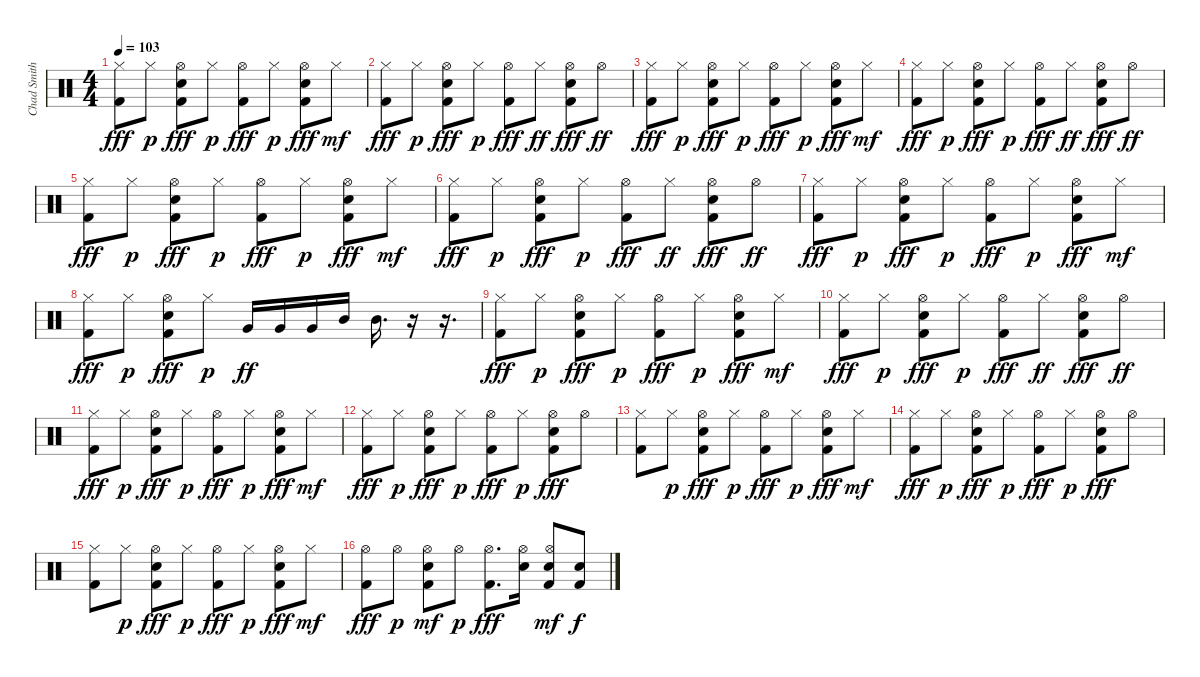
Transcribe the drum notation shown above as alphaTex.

\track ("Chad Smith - Drums" "Chad Smith") {instrument percussion}
\staff {score}
\articulation defaults
\ts (4 4)
\tempo 103
\clef neutral
\ks c
("Hi-Hat (closed)" "Kick (hit) 2").8{dy fff} "Hi-Hat (closed)".8{dy p} ("Hi-Hat (open)" "Snare (hit) 2" "Kick (hit) 2").8{dy fff} "Hi-Hat (closed)".8{dy p} ("Hi-Hat (open)" "Kick (hit) 2").8{dy fff} "Hi-Hat (closed)".8{dy p} ("Hi-Hat (open)" "Snare (hit) 2" "Kick (hit) 2").8{dy fff} "Hi-Hat (closed)".8{dy mf} |
("Hi-Hat (closed)" "Kick (hit) 2").8{dy fff} "Hi-Hat (closed)".8{dy p} ("Hi-Hat (open)" "Snare (hit) 2" "Kick (hit) 2").8{dy fff} "Hi-Hat (closed)".8{dy p} ("Hi-Hat (open)" "Kick (hit) 2").8{dy fff} "Hi-Hat (closed)".8{dy ff} ("Hi-Hat (open)" "Snare (hit) 2" "Kick (hit) 2").8{dy fff} "Hi-Hat (open)".8{dy ff} |
("Hi-Hat (closed)" "Kick (hit) 2").8{dy fff} "Hi-Hat (closed)".8{dy p} ("Hi-Hat (open)" "Snare (hit) 2" "Kick (hit) 2").8{dy fff} "Hi-Hat (closed)".8{dy p} ("Hi-Hat (open)" "Kick (hit) 2").8{dy fff} "Hi-Hat (closed)".8{dy p} ("Hi-Hat (open)" "Snare (hit) 2" "Kick (hit) 2").8{dy fff} "Hi-Hat (closed)".8{dy mf} |
("Hi-Hat (closed)" "Kick (hit) 2").8{dy fff} "Hi-Hat (closed)".8{dy p} ("Hi-Hat (open)" "Snare (hit) 2" "Kick (hit) 2").8{dy fff} "Hi-Hat (closed)".8{dy p} ("Hi-Hat (open)" "Kick (hit) 2").8{dy fff} "Hi-Hat (closed)".8{dy ff} ("Hi-Hat (open)" "Snare (hit) 2" "Kick (hit) 2").8{dy fff} "Hi-Hat (open)".8{dy ff} |
("Hi-Hat (closed)" "Kick (hit) 2").8{dy fff} "Hi-Hat (closed)".8{dy p} ("Hi-Hat (open)" "Snare (hit) 2" "Kick (hit) 2").8{dy fff} "Hi-Hat (closed)".8{dy p} ("Hi-Hat (open)" "Kick (hit) 2").8{dy fff} "Hi-Hat (closed)".8{dy p} ("Hi-Hat (open)" "Snare (hit) 2" "Kick (hit) 2").8{dy fff} "Hi-Hat (closed)".8{dy mf} |
("Hi-Hat (closed)" "Kick (hit) 2").8{dy fff} "Hi-Hat (closed)".8{dy p} ("Hi-Hat (open)" "Snare (hit) 2" "Kick (hit) 2").8{dy fff} "Hi-Hat (closed)".8{dy p} ("Hi-Hat (open)" "Kick (hit) 2").8{dy fff} "Hi-Hat (closed)".8{dy ff} ("Hi-Hat (open)" "Snare (hit) 2" "Kick (hit) 2").8{dy fff} "Hi-Hat (open)".8{dy ff} |
("Hi-Hat (closed)" "Kick (hit) 2").8{dy fff} "Hi-Hat (closed)".8{dy p} ("Hi-Hat (open)" "Snare (hit) 2" "Kick (hit) 2").8{dy fff} "Hi-Hat (closed)".8{dy p} ("Hi-Hat (open)" "Kick (hit) 2").8{dy fff} "Hi-Hat (closed)".8{dy p} ("Hi-Hat (open)" "Snare (hit) 2" "Kick (hit) 2").8{dy fff} "Hi-Hat (closed)".8{dy mf} |
("Hi-Hat (closed)" "Kick (hit) 2").8{dy fff} "Hi-Hat (closed)".8{dy p} ("Hi-Hat (open)" "Snare (hit) 2" "Kick (hit) 2").8{dy fff} "Hi-Hat (closed)".8{dy p} "Very Low Tom (hit)".16{dy ff} "Very Low Tom (hit)".16 "Very Low Tom (hit)".16 "Mid Tom (hit)".16 "Mid Tom (hit)".16{d} r.16 r.16{d} |
("Hi-Hat (closed)" "Kick (hit) 2").8{dy fff} "Hi-Hat (closed)".8{dy p} ("Hi-Hat (open)" "Snare (hit) 2" "Kick (hit) 2").8{dy fff} "Hi-Hat (closed)".8{dy p} ("Hi-Hat (open)" "Kick (hit) 2").8{dy fff} "Hi-Hat (closed)".8{dy p} ("Hi-Hat (open)" "Snare (hit) 2" "Kick (hit) 2").8{dy fff} "Hi-Hat (closed)".8{dy mf} |
("Hi-Hat (closed)" "Kick (hit) 2").8{dy fff} "Hi-Hat (closed)".8{dy p} ("Hi-Hat (open)" "Snare (hit) 2" "Kick (hit) 2").8{dy fff} "Hi-Hat (closed)".8{dy p} ("Hi-Hat (open)" "Kick (hit) 2").8{dy fff} "Hi-Hat (closed)".8{dy ff} ("Hi-Hat (open)" "Snare (hit) 2" "Kick (hit) 2").8{dy fff} "Hi-Hat (open)".8{dy ff} |
("Hi-Hat (closed)" "Kick (hit) 2").8{dy fff} "Hi-Hat (closed)".8{dy p} ("Hi-Hat (open)" "Snare (hit) 2" "Kick (hit) 2").8{dy fff} "Hi-Hat (closed)".8{dy p} ("Hi-Hat (open)" "Kick (hit) 2").8{dy fff} "Hi-Hat (closed)".8{dy p} ("Hi-Hat (open)" "Snare (hit) 2" "Kick (hit) 2").8{dy fff} "Hi-Hat (closed)".8{dy mf} |
("Hi-Hat (closed)" "Kick (hit) 2").8{dy fff} "Hi-Hat (closed)".8{dy p} ("Hi-Hat (open)" "Snare (hit) 2" "Kick (hit) 2").8{dy fff} "Hi-Hat (closed)".8{dy p} ("Hi-Hat (open)" "Kick (hit) 2").8{dy fff} "Hi-Hat (closed)".8{dy p} ("Hi-Hat (open)" "Snare (hit) 2" "Kick (hit) 2").8{dy fff} "Hi-Hat (open)".8 |
("Hi-Hat (closed)" "Kick (hit) 2").8 "Hi-Hat (closed)".8{dy p} ("Hi-Hat (open)" "Snare (hit) 2" "Kick (hit) 2").8{dy fff} "Hi-Hat (closed)".8{dy p} ("Hi-Hat (open)" "Kick (hit) 2").8{dy fff} "Hi-Hat (closed)".8{dy p} ("Hi-Hat (open)" "Snare (hit) 2" "Kick (hit) 2").8{dy fff} "Hi-Hat (closed)".8{dy mf} |
("Hi-Hat (closed)" "Kick (hit) 2").8{dy fff} "Hi-Hat (closed)".8{dy p} ("Hi-Hat (open)" "Snare (hit) 2" "Kick (hit) 2").8{dy fff} "Hi-Hat (closed)".8{dy p} ("Hi-Hat (open)" "Kick (hit) 2").8{dy fff} "Hi-Hat (closed)".8{dy p} ("Hi-Hat (open)" "Snare (hit) 2" "Kick (hit) 2").8{dy fff} "Hi-Hat (open)".8 |
("Hi-Hat (closed)" "Kick (hit) 2").8 "Hi-Hat (closed)".8{dy p} ("Hi-Hat (open)" "Snare (hit) 2" "Kick (hit) 2").8{dy fff} "Hi-Hat (closed)".8{dy p} ("Hi-Hat (open)" "Kick (hit) 2").8{dy fff} "Hi-Hat (closed)".8{dy p} ("Hi-Hat (open)" "Snare (hit) 2" "Kick (hit) 2").8{dy fff} "Hi-Hat (closed)".8{dy mf} |
("Hi-Hat (open)" "Kick (hit) 2").8{dy fff} "Hi-Hat (open)".8{dy p} ("Hi-Hat (open)" "Snare (hit) 2" "Kick (hit) 2").8{dy mf} "Hi-Hat (open)".8{dy p} ("Hi-Hat (open)" "Kick (hit) 2").8{d dy fff} ("Hi-Hat (open)" "Snare (hit) 2").16 ("Hi-Hat (open)" "Snare (hit) 2" "Kick (hit) 2").8{dy mf} ("Snare (hit) 2" "Kick (hit) 2").8{dy f}
